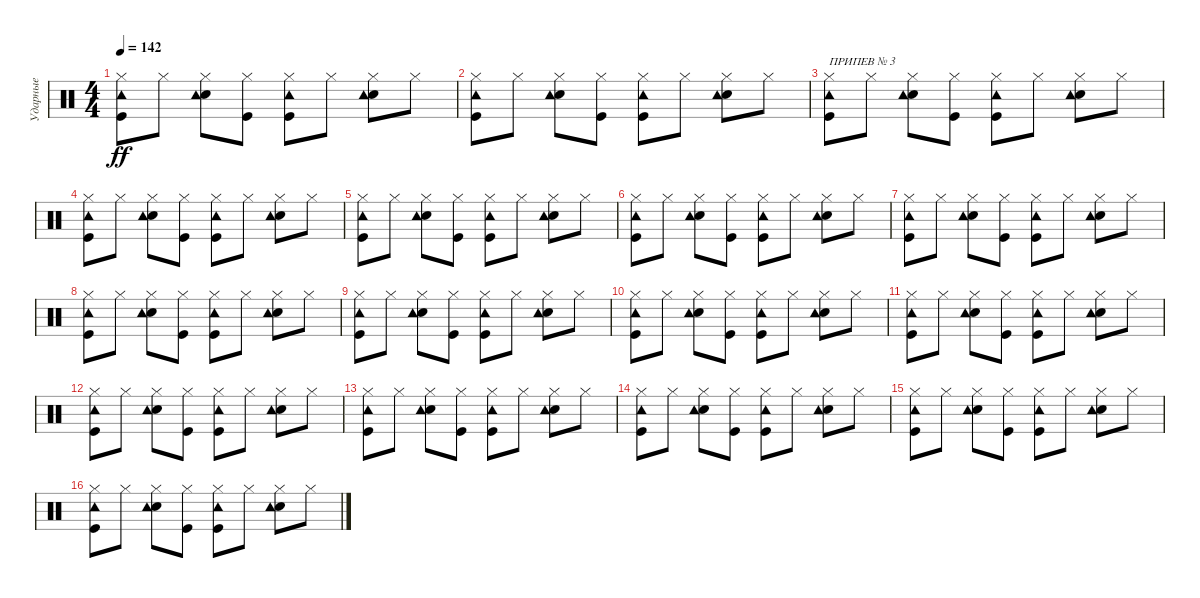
\track ("Ударные" "Ударные") {instrument percussion}
\staff {score}
\articulation defaults
\ts (4 4)
\tempo 142
\clef neutral
\ks c
("Hi-Hat (closed)" "Kick (hit)" "Tambourine (hit)").8{dy ff} "Hi-Hat (closed)".8 ("Hi-Hat (closed)" "Electric Snare (hit)" "Tambourine (hit)").8 ("Hi-Hat (closed)" "Kick (hit)").8 ("Hi-Hat (closed)" "Tambourine (hit)" "Kick (hit)").8 "Hi-Hat (closed)".8 ("Hi-Hat (closed)" "Electric Snare (hit)" "Tambourine (hit)").8 "Hi-Hat (closed)".8 |
("Hi-Hat (closed)" "Kick (hit)" "Tambourine (hit)").8 "Hi-Hat (closed)".8 ("Hi-Hat (closed)" "Electric Snare (hit)" "Tambourine (hit)").8 ("Hi-Hat (closed)" "Kick (hit)").8 ("Hi-Hat (closed)" "Tambourine (hit)" "Kick (hit)").8 "Hi-Hat (closed)".8 ("Hi-Hat (closed)" "Electric Snare (hit)" "Tambourine (hit)").8 "Hi-Hat (closed)".8 |
("Hi-Hat (closed)" "Kick (hit)" "Tambourine (hit)").8{txt "ПРИПЕВ № 3"} "Hi-Hat (closed)".8 ("Hi-Hat (closed)" "Electric Snare (hit)" "Tambourine (hit)").8 ("Hi-Hat (closed)" "Kick (hit)").8 ("Hi-Hat (closed)" "Tambourine (hit)" "Kick (hit)").8 "Hi-Hat (closed)".8 ("Hi-Hat (closed)" "Electric Snare (hit)" "Tambourine (hit)").8 "Hi-Hat (closed)".8 |
("Hi-Hat (closed)" "Kick (hit)" "Tambourine (hit)").8 "Hi-Hat (closed)".8 ("Hi-Hat (closed)" "Electric Snare (hit)" "Tambourine (hit)").8 ("Hi-Hat (closed)" "Kick (hit)").8 ("Hi-Hat (closed)" "Tambourine (hit)" "Kick (hit)").8 "Hi-Hat (closed)".8 ("Hi-Hat (closed)" "Electric Snare (hit)" "Tambourine (hit)").8 "Hi-Hat (closed)".8 |
("Hi-Hat (closed)" "Kick (hit)" "Tambourine (hit)").8 "Hi-Hat (closed)".8 ("Hi-Hat (closed)" "Electric Snare (hit)" "Tambourine (hit)").8 ("Hi-Hat (closed)" "Kick (hit)").8 ("Hi-Hat (closed)" "Tambourine (hit)" "Kick (hit)").8 "Hi-Hat (closed)".8 ("Hi-Hat (closed)" "Electric Snare (hit)" "Tambourine (hit)").8 "Hi-Hat (closed)".8 |
("Hi-Hat (closed)" "Kick (hit)" "Tambourine (hit)").8 "Hi-Hat (closed)".8 ("Hi-Hat (closed)" "Electric Snare (hit)" "Tambourine (hit)").8 ("Hi-Hat (closed)" "Kick (hit)").8 ("Hi-Hat (closed)" "Tambourine (hit)" "Kick (hit)").8 "Hi-Hat (closed)".8 ("Hi-Hat (closed)" "Electric Snare (hit)" "Tambourine (hit)").8 "Hi-Hat (closed)".8 |
("Hi-Hat (closed)" "Kick (hit)" "Tambourine (hit)").8 "Hi-Hat (closed)".8 ("Hi-Hat (closed)" "Electric Snare (hit)" "Tambourine (hit)").8 ("Hi-Hat (closed)" "Kick (hit)").8 ("Hi-Hat (closed)" "Tambourine (hit)" "Kick (hit)").8 "Hi-Hat (closed)".8 ("Hi-Hat (closed)" "Electric Snare (hit)" "Tambourine (hit)").8 "Hi-Hat (closed)".8 |
("Hi-Hat (closed)" "Kick (hit)" "Tambourine (hit)").8 "Hi-Hat (closed)".8 ("Hi-Hat (closed)" "Electric Snare (hit)" "Tambourine (hit)").8 ("Hi-Hat (closed)" "Kick (hit)").8 ("Hi-Hat (closed)" "Tambourine (hit)" "Kick (hit)").8 "Hi-Hat (closed)".8 ("Hi-Hat (closed)" "Electric Snare (hit)" "Tambourine (hit)").8 "Hi-Hat (closed)".8 |
("Hi-Hat (closed)" "Kick (hit)" "Tambourine (hit)").8 "Hi-Hat (closed)".8 ("Hi-Hat (closed)" "Electric Snare (hit)" "Tambourine (hit)").8 ("Hi-Hat (closed)" "Kick (hit)").8 ("Hi-Hat (closed)" "Tambourine (hit)" "Kick (hit)").8 "Hi-Hat (closed)".8 ("Hi-Hat (closed)" "Electric Snare (hit)" "Tambourine (hit)").8 "Hi-Hat (closed)".8 |
("Hi-Hat (closed)" "Kick (hit)" "Tambourine (hit)").8 "Hi-Hat (closed)".8 ("Hi-Hat (closed)" "Electric Snare (hit)" "Tambourine (hit)").8 ("Hi-Hat (closed)" "Kick (hit)").8 ("Hi-Hat (closed)" "Tambourine (hit)" "Kick (hit)").8 "Hi-Hat (closed)".8 ("Hi-Hat (closed)" "Electric Snare (hit)" "Tambourine (hit)").8 "Hi-Hat (closed)".8 |
("Hi-Hat (closed)" "Kick (hit)" "Tambourine (hit)").8 "Hi-Hat (closed)".8 ("Hi-Hat (closed)" "Electric Snare (hit)" "Tambourine (hit)").8 ("Hi-Hat (closed)" "Kick (hit)").8 ("Hi-Hat (closed)" "Tambourine (hit)" "Kick (hit)").8 "Hi-Hat (closed)".8 ("Hi-Hat (closed)" "Electric Snare (hit)" "Tambourine (hit)").8 "Hi-Hat (closed)".8 |
("Hi-Hat (closed)" "Kick (hit)" "Tambourine (hit)").8 "Hi-Hat (closed)".8 ("Hi-Hat (closed)" "Electric Snare (hit)" "Tambourine (hit)").8 ("Hi-Hat (closed)" "Kick (hit)").8 ("Hi-Hat (closed)" "Tambourine (hit)" "Kick (hit)").8 "Hi-Hat (closed)".8 ("Hi-Hat (closed)" "Electric Snare (hit)" "Tambourine (hit)").8 "Hi-Hat (closed)".8 |
("Hi-Hat (closed)" "Kick (hit)" "Tambourine (hit)").8 "Hi-Hat (closed)".8 ("Hi-Hat (closed)" "Electric Snare (hit)" "Tambourine (hit)").8 ("Hi-Hat (closed)" "Kick (hit)").8 ("Hi-Hat (closed)" "Tambourine (hit)" "Kick (hit)").8 "Hi-Hat (closed)".8 ("Hi-Hat (closed)" "Electric Snare (hit)" "Tambourine (hit)").8 "Hi-Hat (closed)".8 |
("Hi-Hat (closed)" "Kick (hit)" "Tambourine (hit)").8 "Hi-Hat (closed)".8 ("Hi-Hat (closed)" "Electric Snare (hit)" "Tambourine (hit)").8 ("Hi-Hat (closed)" "Kick (hit)").8 ("Hi-Hat (closed)" "Tambourine (hit)" "Kick (hit)").8 "Hi-Hat (closed)".8 ("Hi-Hat (closed)" "Electric Snare (hit)" "Tambourine (hit)").8 "Hi-Hat (closed)".8 |
("Hi-Hat (closed)" "Kick (hit)" "Tambourine (hit)").8 "Hi-Hat (closed)".8 ("Hi-Hat (closed)" "Electric Snare (hit)" "Tambourine (hit)").8 ("Hi-Hat (closed)" "Kick (hit)").8 ("Hi-Hat (closed)" "Tambourine (hit)" "Kick (hit)").8 "Hi-Hat (closed)".8 ("Hi-Hat (closed)" "Electric Snare (hit)" "Tambourine (hit)").8 "Hi-Hat (closed)".8 |
("Hi-Hat (closed)" "Kick (hit)" "Tambourine (hit)").8 "Hi-Hat (closed)".8 ("Hi-Hat (closed)" "Electric Snare (hit)" "Tambourine (hit)").8 ("Hi-Hat (closed)" "Kick (hit)").8 ("Hi-Hat (closed)" "Tambourine (hit)" "Kick (hit)").8 "Hi-Hat (closed)".8 ("Hi-Hat (closed)" "Electric Snare (hit)" "Tambourine (hit)").8 "Hi-Hat (closed)".8
